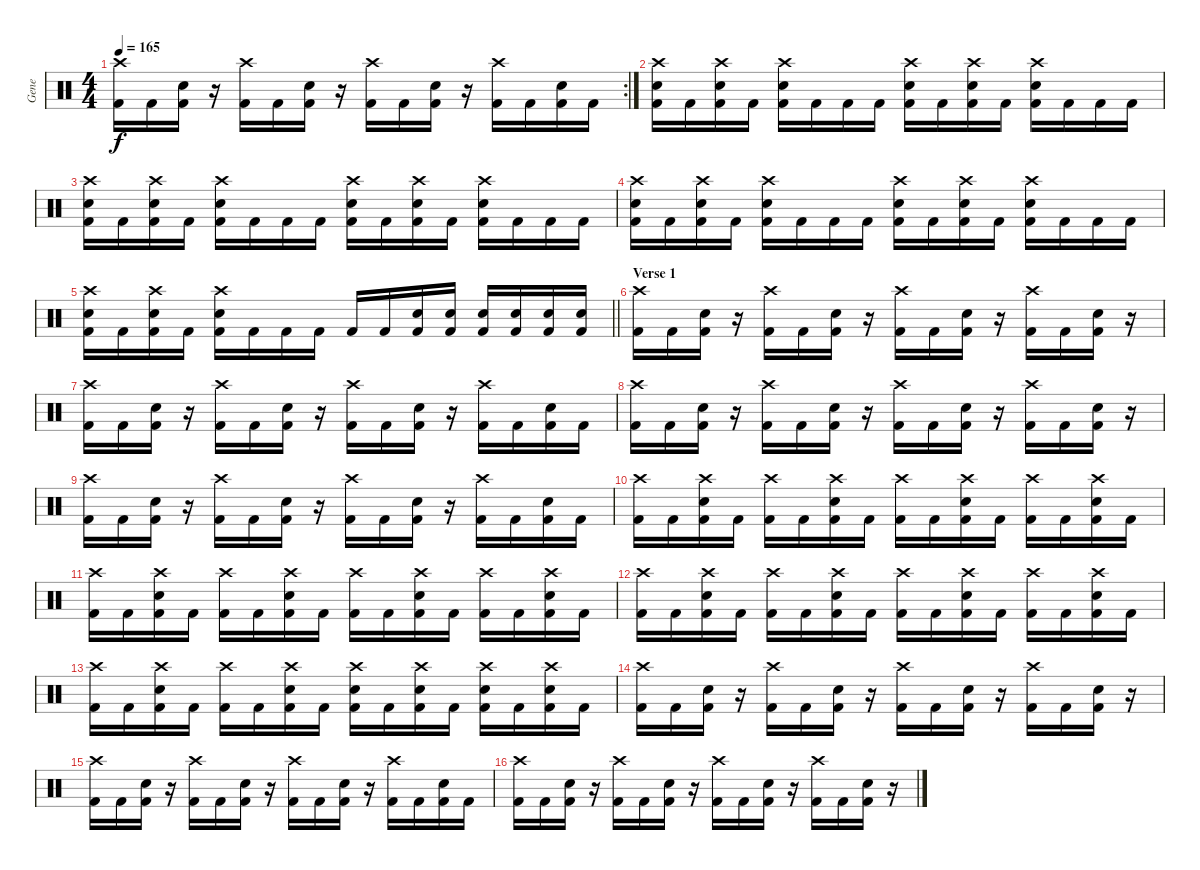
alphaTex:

\track ("Gene" "Gene") {instrument percussion}
\staff {score}
\articulation defaults
\rc 2
\ts (4 4)
\tempo 165
\clef neutral
\ks c
("Crash high (hit)" "Kick (hit) 2").16{dy f} "Kick (hit) 2".16 ("Electric Snare (hit)" "Kick (hit) 2").16 r.16 ("Crash high (hit)" "Kick (hit) 2").16 "Kick (hit) 2".16 ("Electric Snare (hit)" "Kick (hit) 2").16 r.16 ("Crash high (hit)" "Kick (hit) 2").16 "Kick (hit) 2".16 ("Electric Snare (hit)" "Kick (hit) 2").16 r.16 ("Crash high (hit)" "Kick (hit) 2").16 "Kick (hit) 2".16 ("Electric Snare (hit)" "Kick (hit) 2").16 "Kick (hit) 2".16 |
("Electric Snare (hit)" "Crash high (hit)" "Kick (hit) 2").16 "Kick (hit) 2".16 ("Electric Snare (hit)" "Crash high (hit)" "Kick (hit) 2").16 "Kick (hit) 2".16 ("Electric Snare (hit)" "Crash high (hit)" "Kick (hit) 2").16 "Kick (hit) 2".16 "Kick (hit) 2".16 "Kick (hit) 2".16 ("Electric Snare (hit)" "Crash high (hit)" "Kick (hit) 2").16 "Kick (hit) 2".16 ("Electric Snare (hit)" "Crash high (hit)" "Kick (hit) 2").16 "Kick (hit) 2".16 ("Electric Snare (hit)" "Crash high (hit)" "Kick (hit) 2").16 "Kick (hit) 2".16 "Kick (hit) 2".16 "Kick (hit) 2".16 |
("Electric Snare (hit)" "Crash high (hit)" "Kick (hit) 2").16 "Kick (hit) 2".16 ("Electric Snare (hit)" "Crash high (hit)" "Kick (hit) 2").16 "Kick (hit) 2".16 ("Electric Snare (hit)" "Crash high (hit)" "Kick (hit) 2").16 "Kick (hit) 2".16 "Kick (hit) 2".16 "Kick (hit) 2".16 ("Electric Snare (hit)" "Crash high (hit)" "Kick (hit) 2").16 "Kick (hit) 2".16 ("Electric Snare (hit)" "Crash high (hit)" "Kick (hit) 2").16 "Kick (hit) 2".16 ("Electric Snare (hit)" "Crash high (hit)" "Kick (hit) 2").16 "Kick (hit) 2".16 "Kick (hit) 2".16 "Kick (hit) 2".16 |
("Electric Snare (hit)" "Crash high (hit)" "Kick (hit) 2").16 "Kick (hit) 2".16 ("Electric Snare (hit)" "Crash high (hit)" "Kick (hit) 2").16 "Kick (hit) 2".16 ("Electric Snare (hit)" "Crash high (hit)" "Kick (hit) 2").16 "Kick (hit) 2".16 "Kick (hit) 2".16 "Kick (hit) 2".16 ("Electric Snare (hit)" "Crash high (hit)" "Kick (hit) 2").16 "Kick (hit) 2".16 ("Electric Snare (hit)" "Crash high (hit)" "Kick (hit) 2").16 "Kick (hit) 2".16 ("Electric Snare (hit)" "Crash high (hit)" "Kick (hit) 2").16 "Kick (hit) 2".16 "Kick (hit) 2".16 "Kick (hit) 2".16 |
\barLineRight lightlight
("Electric Snare (hit)" "Crash high (hit)" "Kick (hit) 2").16 "Kick (hit) 2".16 ("Electric Snare (hit)" "Crash high (hit)" "Kick (hit) 2").16 "Kick (hit) 2".16 ("Electric Snare (hit)" "Crash high (hit)" "Kick (hit) 2").16 "Kick (hit) 2".16 "Kick (hit) 2".16 "Kick (hit) 2".16 "Kick (hit) 2".16 "Kick (hit) 2".16 ("Electric Snare (hit)" "Kick (hit) 2").16 ("Electric Snare (hit)" "Kick (hit) 2").16 ("Electric Snare (hit)" "Kick (hit) 2").16 ("Electric Snare (hit)" "Kick (hit) 2").16 ("Electric Snare (hit)" "Kick (hit) 2").16 ("Electric Snare (hit)" "Kick (hit) 2").16 |
\section ("" "Verse 1")
("Crash high (hit)" "Kick (hit) 2").16 "Kick (hit) 2".16 ("Electric Snare (hit)" "Kick (hit) 2").16 r.16 ("Crash high (hit)" "Kick (hit) 2").16 "Kick (hit) 2".16 ("Electric Snare (hit)" "Kick (hit) 2").16 r.16 ("Crash high (hit)" "Kick (hit) 2").16 "Kick (hit) 2".16 ("Electric Snare (hit)" "Kick (hit) 2").16 r.16 ("Crash high (hit)" "Kick (hit) 2").16 "Kick (hit) 2".16 ("Electric Snare (hit)" "Kick (hit) 2").16 r.16 |
("Crash high (hit)" "Kick (hit) 2").16 "Kick (hit) 2".16 ("Electric Snare (hit)" "Kick (hit) 2").16 r.16 ("Crash high (hit)" "Kick (hit) 2").16 "Kick (hit) 2".16 ("Electric Snare (hit)" "Kick (hit) 2").16 r.16 ("Crash high (hit)" "Kick (hit) 2").16 "Kick (hit) 2".16 ("Electric Snare (hit)" "Kick (hit) 2").16 r.16 ("Crash high (hit)" "Kick (hit) 2").16 "Kick (hit) 2".16 ("Electric Snare (hit)" "Kick (hit) 2").16 "Kick (hit) 2".16 |
("Crash high (hit)" "Kick (hit) 2").16 "Kick (hit) 2".16 ("Electric Snare (hit)" "Kick (hit) 2").16 r.16 ("Crash high (hit)" "Kick (hit) 2").16 "Kick (hit) 2".16 ("Electric Snare (hit)" "Kick (hit) 2").16 r.16 ("Crash high (hit)" "Kick (hit) 2").16 "Kick (hit) 2".16 ("Electric Snare (hit)" "Kick (hit) 2").16 r.16 ("Crash high (hit)" "Kick (hit) 2").16 "Kick (hit) 2".16 ("Electric Snare (hit)" "Kick (hit) 2").16 r.16 |
("Crash high (hit)" "Kick (hit) 2").16 "Kick (hit) 2".16 ("Electric Snare (hit)" "Kick (hit) 2").16 r.16 ("Crash high (hit)" "Kick (hit) 2").16 "Kick (hit) 2".16 ("Electric Snare (hit)" "Kick (hit) 2").16 r.16 ("Crash high (hit)" "Kick (hit) 2").16 "Kick (hit) 2".16 ("Electric Snare (hit)" "Kick (hit) 2").16 r.16 ("Crash high (hit)" "Kick (hit) 2").16 "Kick (hit) 2".16 ("Electric Snare (hit)" "Kick (hit) 2").16 "Kick (hit) 2".16 |
("Crash high (hit)" "Kick (hit) 2").16 "Kick (hit) 2".16 ("Crash high (hit)" "Electric Snare (hit)" "Kick (hit) 2").16 "Kick (hit) 2".16 ("Crash high (hit)" "Kick (hit) 2").16 "Kick (hit) 2".16 ("Crash high (hit)" "Electric Snare (hit)" "Kick (hit) 2").16 "Kick (hit) 2".16 ("Crash high (hit)" "Kick (hit) 2").16 "Kick (hit) 2".16 ("Crash high (hit)" "Electric Snare (hit)" "Kick (hit) 2").16 "Kick (hit) 2".16 ("Crash high (hit)" "Kick (hit) 2").16 "Kick (hit) 2".16 ("Crash high (hit)" "Electric Snare (hit)" "Kick (hit) 2").16 "Kick (hit) 2".16 |
("Crash high (hit)" "Kick (hit) 2").16 "Kick (hit) 2".16 ("Crash high (hit)" "Electric Snare (hit)" "Kick (hit) 2").16 "Kick (hit) 2".16 ("Crash high (hit)" "Kick (hit) 2").16 "Kick (hit) 2".16 ("Crash high (hit)" "Electric Snare (hit)" "Kick (hit) 2").16 "Kick (hit) 2".16 ("Crash high (hit)" "Kick (hit) 2").16 "Kick (hit) 2".16 ("Crash high (hit)" "Electric Snare (hit)" "Kick (hit) 2").16 "Kick (hit) 2".16 ("Crash high (hit)" "Kick (hit) 2").16 "Kick (hit) 2".16 ("Crash high (hit)" "Electric Snare (hit)" "Kick (hit) 2").16 "Kick (hit) 2".16 |
("Crash high (hit)" "Kick (hit) 2").16 "Kick (hit) 2".16 ("Crash high (hit)" "Electric Snare (hit)" "Kick (hit) 2").16 "Kick (hit) 2".16 ("Crash high (hit)" "Kick (hit) 2").16 "Kick (hit) 2".16 ("Crash high (hit)" "Electric Snare (hit)" "Kick (hit) 2").16 "Kick (hit) 2".16 ("Crash high (hit)" "Kick (hit) 2").16 "Kick (hit) 2".16 ("Crash high (hit)" "Electric Snare (hit)" "Kick (hit) 2").16 "Kick (hit) 2".16 ("Crash high (hit)" "Kick (hit) 2").16 "Kick (hit) 2".16 ("Crash high (hit)" "Electric Snare (hit)" "Kick (hit) 2").16 "Kick (hit) 2".16 |
("Crash high (hit)" "Kick (hit) 2").16 "Kick (hit) 2".16 ("Crash high (hit)" "Electric Snare (hit)" "Kick (hit) 2").16 "Kick (hit) 2".16 ("Crash high (hit)" "Kick (hit) 2").16 "Kick (hit) 2".16 ("Crash high (hit)" "Electric Snare (hit)" "Kick (hit) 2").16 "Kick (hit) 2".16 ("Crash high (hit)" "Electric Snare (hit)" "Kick (hit) 2").16 "Kick (hit) 2".16 ("Crash high (hit)" "Electric Snare (hit)" "Kick (hit) 2").16 "Kick (hit) 2".16 ("Crash high (hit)" "Electric Snare (hit)" "Kick (hit) 2").16 "Kick (hit) 2".16 ("Crash high (hit)" "Electric Snare (hit)" "Kick (hit) 2").16 "Kick (hit) 2".16 |
("Crash high (hit)" "Kick (hit) 2").16 "Kick (hit) 2".16 ("Electric Snare (hit)" "Kick (hit) 2").16 r.16 ("Crash high (hit)" "Kick (hit) 2").16 "Kick (hit) 2".16 ("Electric Snare (hit)" "Kick (hit) 2").16 r.16 ("Crash high (hit)" "Kick (hit) 2").16 "Kick (hit) 2".16 ("Electric Snare (hit)" "Kick (hit) 2").16 r.16 ("Crash high (hit)" "Kick (hit) 2").16 "Kick (hit) 2".16 ("Electric Snare (hit)" "Kick (hit) 2").16 r.16 |
("Crash high (hit)" "Kick (hit) 2").16 "Kick (hit) 2".16 ("Electric Snare (hit)" "Kick (hit) 2").16 r.16 ("Crash high (hit)" "Kick (hit) 2").16 "Kick (hit) 2".16 ("Electric Snare (hit)" "Kick (hit) 2").16 r.16 ("Crash high (hit)" "Kick (hit) 2").16 "Kick (hit) 2".16 ("Electric Snare (hit)" "Kick (hit) 2").16 r.16 ("Crash high (hit)" "Kick (hit) 2").16 "Kick (hit) 2".16 ("Electric Snare (hit)" "Kick (hit) 2").16 "Kick (hit) 2".16 |
("Crash high (hit)" "Kick (hit) 2").16 "Kick (hit) 2".16 ("Electric Snare (hit)" "Kick (hit) 2").16 r.16 ("Crash high (hit)" "Kick (hit) 2").16 "Kick (hit) 2".16 ("Electric Snare (hit)" "Kick (hit) 2").16 r.16 ("Crash high (hit)" "Kick (hit) 2").16 "Kick (hit) 2".16 ("Electric Snare (hit)" "Kick (hit) 2").16 r.16 ("Crash high (hit)" "Kick (hit) 2").16 "Kick (hit) 2".16 ("Electric Snare (hit)" "Kick (hit) 2").16 r.16
